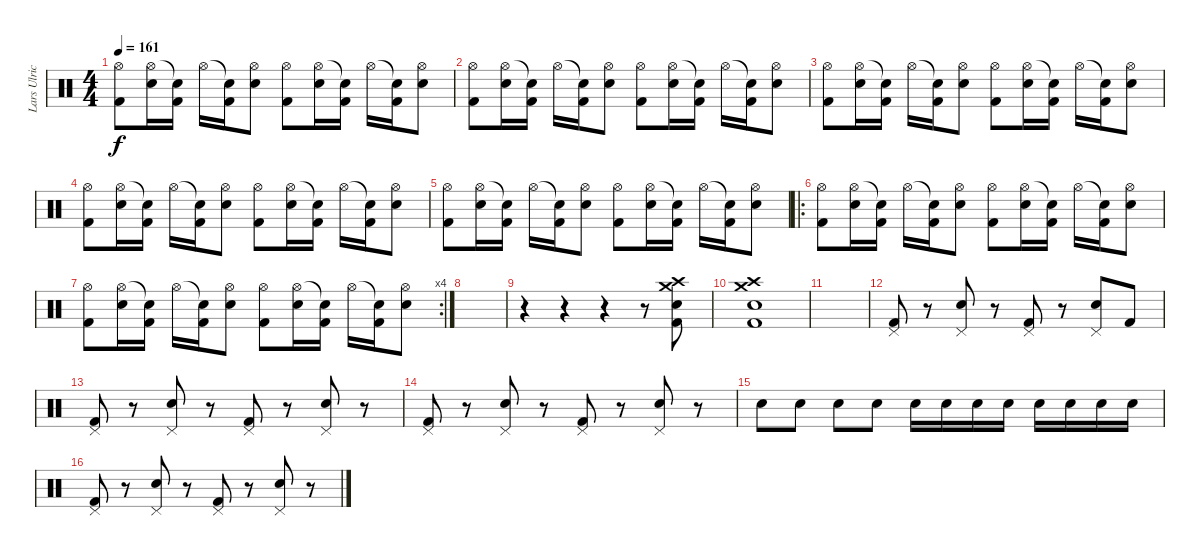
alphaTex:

\track ("Lars Ulrich" "Lars Ulric") {instrument percussion}
\staff {score}
\articulation defaults
\ts (4 4)
\tempo 161
\clef neutral
\ks c
("Hi-Hat (open)" "Kick (hit) 2").8{dy f} ("Hi-Hat (open)" "Electric Snare (hit)").16 ("Snare (hit)"{t} "Kick (hit) 2").16 "Hi-Hat (open)".16 ("Snare (hit)"{t} "Kick (hit) 2").16 ("Hi-Hat (open)" "Electric Snare (hit)").8 ("Hi-Hat (open)" "Kick (hit) 2").8 ("Hi-Hat (open)" "Electric Snare (hit)").16 ("Snare (hit)"{t} "Kick (hit) 2").16 "Hi-Hat (open)".16 ("Snare (hit)"{t} "Kick (hit) 2").16 ("Hi-Hat (open)" "Electric Snare (hit)").8 |
("Hi-Hat (open)" "Kick (hit) 2").8 ("Hi-Hat (open)" "Electric Snare (hit)").16 ("Snare (hit)"{t} "Kick (hit) 2").16 "Hi-Hat (open)".16 ("Snare (hit)"{t} "Kick (hit) 2").16 ("Hi-Hat (open)" "Electric Snare (hit)").8 ("Hi-Hat (open)" "Kick (hit) 2").8 ("Hi-Hat (open)" "Electric Snare (hit)").16 ("Snare (hit)"{t} "Kick (hit) 2").16 "Hi-Hat (open)".16 ("Snare (hit)"{t} "Kick (hit) 2").16 ("Hi-Hat (open)" "Electric Snare (hit)").8 |
("Hi-Hat (open)" "Kick (hit) 2").8 ("Hi-Hat (open)" "Electric Snare (hit)").16 ("Snare (hit)"{t} "Kick (hit) 2").16 "Hi-Hat (open)".16 ("Snare (hit)"{t} "Kick (hit) 2").16 ("Hi-Hat (open)" "Electric Snare (hit)").8 ("Hi-Hat (open)" "Kick (hit) 2").8 ("Hi-Hat (open)" "Electric Snare (hit)").16 ("Snare (hit)"{t} "Kick (hit) 2").16 "Hi-Hat (open)".16 ("Snare (hit)"{t} "Kick (hit) 2").16 ("Hi-Hat (open)" "Electric Snare (hit)").8 |
("Hi-Hat (open)" "Kick (hit) 2").8 ("Hi-Hat (open)" "Electric Snare (hit)").16 ("Snare (hit)"{t} "Kick (hit) 2").16 "Hi-Hat (open)".16 ("Snare (hit)"{t} "Kick (hit) 2").16 ("Hi-Hat (open)" "Electric Snare (hit)").8 ("Hi-Hat (open)" "Kick (hit) 2").8 ("Hi-Hat (open)" "Electric Snare (hit)").16 ("Snare (hit)"{t} "Kick (hit) 2").16 "Hi-Hat (open)".16 ("Snare (hit)"{t} "Kick (hit) 2").16 ("Hi-Hat (open)" "Electric Snare (hit)").8 |
("Hi-Hat (open)" "Kick (hit) 2").8 ("Hi-Hat (open)" "Electric Snare (hit)").16 ("Snare (hit)"{t} "Kick (hit) 2").16 "Hi-Hat (open)".16 ("Snare (hit)"{t} "Kick (hit) 2").16 ("Hi-Hat (open)" "Electric Snare (hit)").8 ("Hi-Hat (open)" "Kick (hit) 2").8 ("Hi-Hat (open)" "Electric Snare (hit)").16 ("Snare (hit)"{t} "Kick (hit) 2").16 "Hi-Hat (open)".16 ("Snare (hit)"{t} "Kick (hit) 2").16 ("Hi-Hat (open)" "Electric Snare (hit)").8 |
\ro
("Hi-Hat (open)" "Kick (hit) 2").8 ("Hi-Hat (open)" "Electric Snare (hit)").16 ("Snare (hit)"{t} "Kick (hit) 2").16 "Hi-Hat (open)".16 ("Snare (hit)"{t} "Kick (hit) 2").16 ("Hi-Hat (open)" "Electric Snare (hit)").8 ("Hi-Hat (open)" "Kick (hit) 2").8 ("Hi-Hat (open)" "Electric Snare (hit)").16 ("Snare (hit)"{t} "Kick (hit) 2").16 "Hi-Hat (open)".16 ("Snare (hit)"{t} "Kick (hit) 2").16 ("Hi-Hat (open)" "Electric Snare (hit)").8 |
\rc 4
("Hi-Hat (open)" "Kick (hit) 2").8 ("Hi-Hat (open)" "Electric Snare (hit)").16 ("Snare (hit)"{t} "Kick (hit) 2").16 "Hi-Hat (open)".16 ("Snare (hit)"{t} "Kick (hit) 2").16 ("Hi-Hat (open)" "Electric Snare (hit)").8 ("Hi-Hat (open)" "Kick (hit) 2").8 ("Hi-Hat (open)" "Electric Snare (hit)").16 ("Snare (hit)"{t} "Kick (hit) 2").16 "Hi-Hat (open)".16 ("Snare (hit)"{t} "Kick (hit) 2").16 ("Hi-Hat (open)" "Electric Snare (hit)").8 |
|
r.4 r.4 r.4 r.8 ("Crash medium (hit)" "Crash high (hit)" "Electric Snare (hit)" "Kick (hit) 2").8 |
("Crash medium (hit)" "Crash high (hit)" "Electric Snare (hit)" "Kick (hit) 2").1 |
|
("Pedal Hi-Hat (hit)" "Kick (hit) 2").8 r.8 ("Pedal Hi-Hat (hit)" "Electric Snare (hit)").8 r.8 ("Pedal Hi-Hat (hit)" "Kick (hit) 2").8 r.8 ("Pedal Hi-Hat (hit)" "Electric Snare (hit)").8 "Kick (hit) 2".8 |
("Pedal Hi-Hat (hit)" "Kick (hit) 2").8 r.8 ("Pedal Hi-Hat (hit)" "Electric Snare (hit)").8 r.8 ("Pedal Hi-Hat (hit)" "Kick (hit) 2").8 r.8 ("Pedal Hi-Hat (hit)" "Electric Snare (hit)").8 r.8 |
("Pedal Hi-Hat (hit)" "Kick (hit) 2").8 r.8 ("Pedal Hi-Hat (hit)" "Electric Snare (hit)").8 r.8 ("Pedal Hi-Hat (hit)" "Kick (hit) 2").8 r.8 ("Pedal Hi-Hat (hit)" "Electric Snare (hit)").8 r.8 |
"Electric Snare (hit)".8 "Electric Snare (hit)".8 "Electric Snare (hit)".8 "Electric Snare (hit)".8 "Electric Snare (hit)".16 "Electric Snare (hit)".16 "Electric Snare (hit)".16 "Electric Snare (hit)".16 "Electric Snare (hit)".16 "Electric Snare (hit)".16 "Electric Snare (hit)".16 "Electric Snare (hit)".16 |
("Pedal Hi-Hat (hit)" "Kick (hit) 2").8 r.8 ("Pedal Hi-Hat (hit)" "Electric Snare (hit)").8 r.8 ("Pedal Hi-Hat (hit)" "Kick (hit) 2").8 r.8 ("Pedal Hi-Hat (hit)" "Electric Snare (hit)").8 r.8
